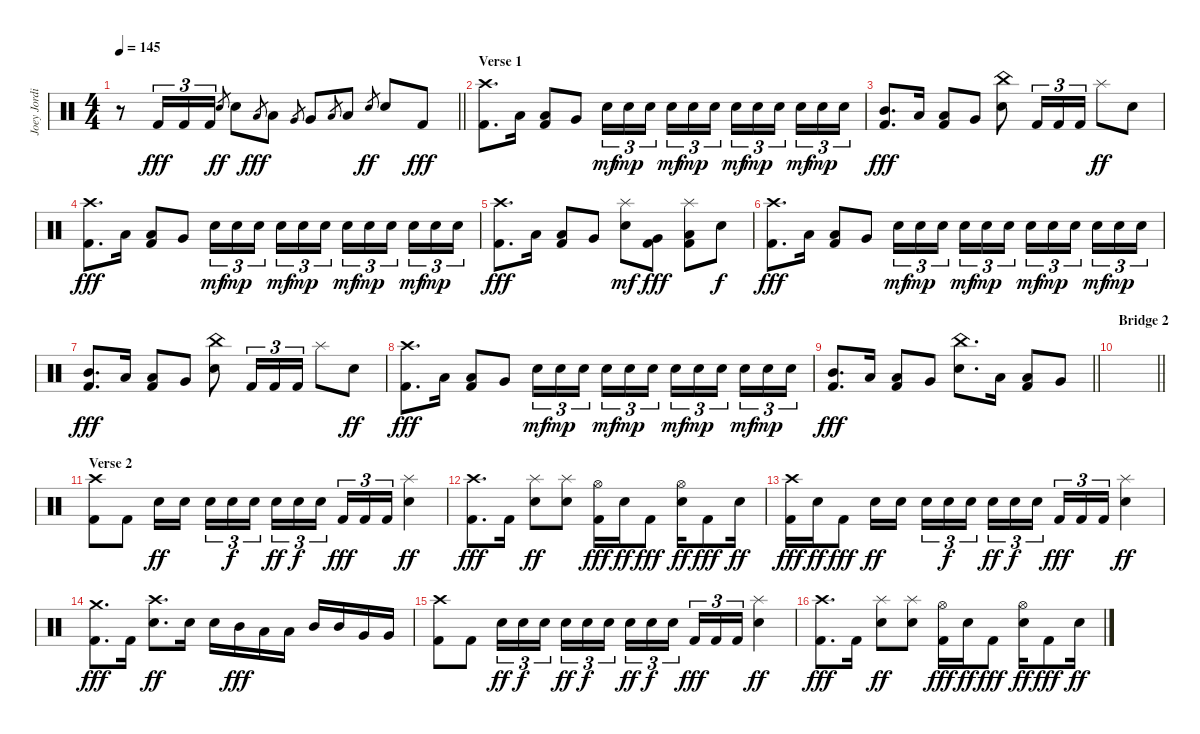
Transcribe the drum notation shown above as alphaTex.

\track ("Joey Jordison" "Joey Jordi") {instrument percussion}
\staff {score}
\articulation defaults
\ts (4 4)
\tempo 145
\clef neutral
\barLineRight lightlight
\ks c
r.8{dy mf} "Kick (hit) 2".16{tu (3 2) dy fff} "Kick (hit) 2".16{tu (3 2)} "Kick (hit) 2".16{tu (3 2)} "Electric Snare (hit)".8{gr dy ff} "Electric Snare (hit)".8 "Low Tom (hit)".8{gr dy fff} "Low Tom (hit)".8 "Very Low Tom (hit)".8{gr} "Very Low Tom (hit)".8 "Low Floor Tom (hit)".8{gr} "Low Floor Tom (hit)".8 "Electric Snare (hit)".8{gr dy ff} "Electric Snare (hit)".8 "Kick (hit) 2".8{dy fff} |
\section ("" "Verse 1")
("Crash high (hit)" "Kick (hit) 2").8{d} "Low Tom (hit)".16 ("Low Floor Tom (hit)" "Kick (hit) 2").8 "Very Low Tom (hit)".8 "Electric Snare (hit)".16{tu (3 2) dy mf} "Electric Snare (hit)".16{tu (3 2) dy mp} "Electric Snare (hit)".16{tu (3 2) beam splitsecondary} "Electric Snare (hit)".16{tu (3 2) dy mf} "Electric Snare (hit)".16{tu (3 2) dy mp} "Electric Snare (hit)".16{tu (3 2)} "Electric Snare (hit)".16{tu (3 2) dy mf} "Electric Snare (hit)".16{tu (3 2) dy mp} "Electric Snare (hit)".16{tu (3 2) beam splitsecondary} "Electric Snare (hit)".16{tu (3 2) dy mf} "Electric Snare (hit)".16{tu (3 2) dy mp} "Electric Snare (hit)".16{tu (3 2)} |
("Mid Tom (hit)" "Kick (hit) 2").8{d dy fff} "Low Tom (hit)".16 ("Low Floor Tom (hit)" "Kick (hit) 2").8 "Very Low Tom (hit)".8 ("China (hit)" "Electric Snare (hit)").8 "Kick (hit) 2".16{tu (3 2)} "Kick (hit) 2".16{tu (3 2)} "Kick (hit) 2".16{tu (3 2)} "Splash (hit)".8{dy ff} "Electric Snare (hit)".8 |
("Crash high (hit)" "Kick (hit) 2").8{d dy fff} "Low Tom (hit)".16 ("Low Floor Tom (hit)" "Kick (hit) 2").8 "Very Low Tom (hit)".8 "Electric Snare (hit)".16{tu (3 2) dy mf} "Electric Snare (hit)".16{tu (3 2) dy mp} "Electric Snare (hit)".16{tu (3 2) beam splitsecondary} "Electric Snare (hit)".16{tu (3 2) dy mf} "Electric Snare (hit)".16{tu (3 2) dy mp} "Electric Snare (hit)".16{tu (3 2)} "Electric Snare (hit)".16{tu (3 2) dy mf} "Electric Snare (hit)".16{tu (3 2) dy mp} "Electric Snare (hit)".16{tu (3 2) beam splitsecondary} "Electric Snare (hit)".16{tu (3 2) dy mf} "Electric Snare (hit)".16{tu (3 2) dy mp} "Electric Snare (hit)".16{tu (3 2)} |
("Crash high (hit)" "Kick (hit) 2").8{d dy fff} "Low Tom (hit)".16 ("Low Floor Tom (hit)" "Kick (hit) 2").8 "Very Low Tom (hit)".8 ("Splash (hit)" "Electric Snare (hit)").8{dy mf} ("Very Low Tom (hit)" "Kick (hit) 2").8{dy fff} ("Splash (hit)" "Low Floor Tom (hit)" "Kick (hit) 2").8 "Electric Snare (hit)".8{dy f} |
("Crash high (hit)" "Kick (hit) 2").8{d dy fff} "Low Tom (hit)".16 ("Low Floor Tom (hit)" "Kick (hit) 2").8 "Very Low Tom (hit)".8 "Electric Snare (hit)".16{tu (3 2) dy mf} "Electric Snare (hit)".16{tu (3 2) dy mp} "Electric Snare (hit)".16{tu (3 2) beam splitsecondary} "Electric Snare (hit)".16{tu (3 2) dy mf} "Electric Snare (hit)".16{tu (3 2) dy mp} "Electric Snare (hit)".16{tu (3 2)} "Electric Snare (hit)".16{tu (3 2) dy mf} "Electric Snare (hit)".16{tu (3 2) dy mp} "Electric Snare (hit)".16{tu (3 2) beam splitsecondary} "Electric Snare (hit)".16{tu (3 2) dy mf} "Electric Snare (hit)".16{tu (3 2) dy mp} "Electric Snare (hit)".16{tu (3 2)} |
("Mid Tom (hit)" "Kick (hit) 2").8{d dy fff} "Low Tom (hit)".16 ("Low Floor Tom (hit)" "Kick (hit) 2").8 "Very Low Tom (hit)".8 ("China (hit)" "Electric Snare (hit)").8 "Kick (hit) 2".16{tu (3 2)} "Kick (hit) 2".16{tu (3 2)} "Kick (hit) 2".16{tu (3 2)} "Splash (hit)".8 "Electric Snare (hit)".8{dy ff} |
("Crash high (hit)" "Kick (hit) 2").8{d dy fff} "Low Tom (hit)".16 ("Low Floor Tom (hit)" "Kick (hit) 2").8 "Very Low Tom (hit)".8 "Electric Snare (hit)".16{tu (3 2) dy mf} "Electric Snare (hit)".16{tu (3 2) dy mp} "Electric Snare (hit)".16{tu (3 2) beam splitsecondary} "Electric Snare (hit)".16{tu (3 2) dy mf} "Electric Snare (hit)".16{tu (3 2) dy mp} "Electric Snare (hit)".16{tu (3 2)} "Electric Snare (hit)".16{tu (3 2) dy mf} "Electric Snare (hit)".16{tu (3 2) dy mp} "Electric Snare (hit)".16{tu (3 2) beam splitsecondary} "Electric Snare (hit)".16{tu (3 2) dy mf} "Electric Snare (hit)".16{tu (3 2) dy mp} "Electric Snare (hit)".16{tu (3 2)} |
\barLineRight lightlight
("Mid Tom (hit)" "Kick (hit) 2").8{d dy fff} "Low Tom (hit)".16 ("Low Floor Tom (hit)" "Kick (hit) 2").8 "Very Low Tom (hit)".8 ("China (hit)" "Electric Snare (hit)").8{d} "Low Tom (hit)".16 ("Low Floor Tom (hit)" "Kick (hit) 2").8 "Very Low Tom (hit)".8 |
\section ("" "Bridge 2")
\barLineRight lightlight
|
\section ("" "Verse 2")
("Crash high (hit)" "Kick (hit) 2").8 "Kick (hit) 2".8 "Electric Snare (hit)".16{dy ff} "Electric Snare (hit)".16{beam splitsecondary} "Electric Snare (hit)".16{tu (3 2)} "Electric Snare (hit)".16{tu (3 2) dy f} "Electric Snare (hit)".16{tu (3 2)} "Electric Snare (hit)".16{tu (3 2) dy ff} "Electric Snare (hit)".16{tu (3 2) dy f} "Electric Snare (hit)".16{tu (3 2) beam splitsecondary} "Kick (hit) 2".16{tu (3 2) dy fff} "Kick (hit) 2".16{tu (3 2)} "Kick (hit) 2".16{tu (3 2)} ("Splash (hit)" "Electric Snare (hit)").4{dy ff} |
("Crash high (hit)" "Kick (hit) 2").8{d dy fff} "Kick (hit) 2".16 ("Splash (hit)" "Electric Snare (hit)").8{dy ff} ("Splash (hit)" "Electric Snare (hit)").8 ("Hi-Hat (open)" "Kick (hit) 2").16{dy fff} "Electric Snare (hit)".16{dy ff} "Kick (hit) 2".8{dy fff} ("Hi-Hat (open)" "Electric Snare (hit)").16{dy ff} "Kick (hit) 2".8{dy fff} "Electric Snare (hit)".16{dy ff} |
("Crash high (hit)" "Kick (hit) 2").16{dy fff} "Electric Snare (hit)".16{dy ff} "Kick (hit) 2".8{dy fff} "Electric Snare (hit)".16{dy ff} "Electric Snare (hit)".16{beam splitsecondary} "Electric Snare (hit)".16{tu (3 2)} "Electric Snare (hit)".16{tu (3 2) dy f} "Electric Snare (hit)".16{tu (3 2)} "Electric Snare (hit)".16{tu (3 2) dy ff} "Electric Snare (hit)".16{tu (3 2) dy f} "Electric Snare (hit)".16{tu (3 2) beam splitsecondary} "Kick (hit) 2".16{tu (3 2) dy fff} "Kick (hit) 2".16{tu (3 2)} "Kick (hit) 2".16{tu (3 2)} ("Splash (hit)" "Electric Snare (hit)").4{dy ff} |
("Crash medium (hit)" "Kick (hit) 2").8{d dy fff} "Kick (hit) 2".16 ("Crash high (hit)" "Electric Snare (hit)").8{d dy ff} "Electric Snare (hit)".16 "Electric Snare (hit)".16 "Mid Tom (hit)".16{dy fff} "Low Tom (hit)".16 "Low Tom (hit)".16 "Mid Tom (hit)".16 "Mid Tom (hit)".16 "Very Low Tom (hit)".16 "Very Low Tom (hit)".16 |
("Crash high (hit)" "Kick (hit) 2").8 "Kick (hit) 2".8 "Electric Snare (hit)".16{tu (3 2) dy ff} "Electric Snare (hit)".16{tu (3 2) dy f} "Electric Snare (hit)".16{tu (3 2) beam splitsecondary} "Electric Snare (hit)".16{tu (3 2) dy ff} "Electric Snare (hit)".16{tu (3 2) dy f} "Electric Snare (hit)".16{tu (3 2)} "Electric Snare (hit)".16{tu (3 2) dy ff} "Electric Snare (hit)".16{tu (3 2) dy f} "Electric Snare (hit)".16{tu (3 2) beam splitsecondary} "Kick (hit) 2".16{tu (3 2) dy fff} "Kick (hit) 2".16{tu (3 2)} "Kick (hit) 2".16{tu (3 2)} ("Splash (hit)" "Electric Snare (hit)").4{dy ff} |
("Crash high (hit)" "Kick (hit) 2").8{d dy fff} "Kick (hit) 2".16 ("Splash (hit)" "Electric Snare (hit)").8{dy ff} ("Splash (hit)" "Electric Snare (hit)").8 ("Hi-Hat (open)" "Kick (hit) 2").16{dy fff} "Electric Snare (hit)".16{dy ff} "Kick (hit) 2".8{dy fff} ("Hi-Hat (open)" "Electric Snare (hit)").16{dy ff} "Kick (hit) 2".8{dy fff} "Electric Snare (hit)".16{dy ff}
